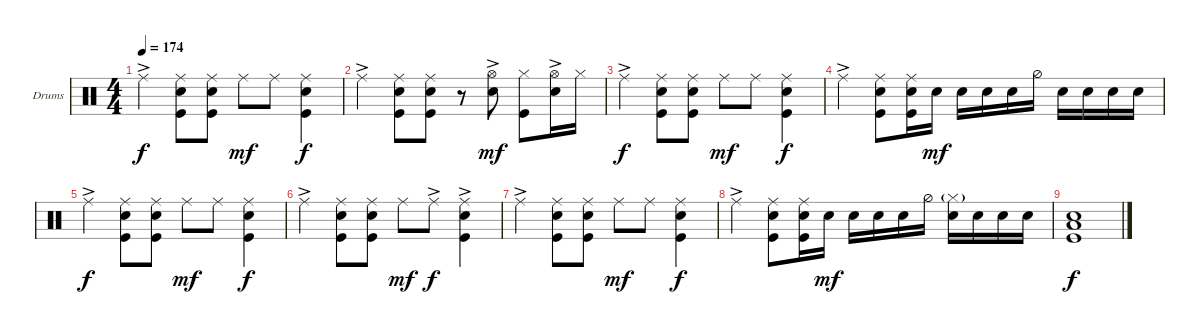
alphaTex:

\defaultSystemsLayout 4
\bracketExtendMode groupsimilarinstruments
\firstSystemTrackNameOrientation horizontal
\otherSystemsTrackNameOrientation horizontal
\track ("Drumkit (Liam Finn)" "Drums") {instrument percussion}
\staff {score}
\articulation defaults
\ts (4 4)
\tempo 174
\clef neutral
\scale
0.333333
\ks c "Ride (middle)"{ac}.4{dy f}
("Snare (hit) 2" "Kick (hit)" "Ride (middle)").8 ("Snare (hit) 2" "Kick (hit)" "Ride (middle)").8 "Ride (middle)".8{dy mf} "Ride (middle)".8 ("Snare (hit) 2" "Kick (hit)" "Ride (middle)").4{dy f} |
\scale
0.333333 "Ride (middle)"{ac}.4 ("Snare (hit) 2" "Kick (hit)" "Ride (middle)").8 ("Snare (hit) 2" "Kick (hit)" "Ride (middle)").8 r.8 ("Hi-Hat (open)" "Snare (hit) 2"{ac}).8{dy mf} ("Hi-Hat (closed)" "Kick (hit)").8 ("Hi-Hat (open)" "Snare (hit) 2"{ac}).16 "Hi-Hat (closed)".16 |
\scale
0.333333 "Ride (middle)"{ac}.4{dy f} ("Snare (hit) 2" "Kick (hit)" "Ride (middle)").8 ("Snare (hit) 2" "Kick (hit)" "Ride (middle)").8 "Ride (middle)".8{dy mf} "Ride (middle)".8 ("Snare (hit) 2" "Kick (hit)" "Ride (middle)").4{dy f} |
\scale
0.333333 "Ride (middle)"{ac}.4 ("Snare (hit) 2" "Kick (hit)" "Ride (middle)").8 ("Snare (hit) 2" "Kick (hit)" "Ride (middle)").16 "Snare (hit) 2".16{dy mf} "Snare (hit) 2".16 "Snare (hit) 2".16 "Snare (hit) 2".16 "Hi-Hat (half)".16 "Snare (hit) 2".16 "Snare (hit) 2".16 "Snare (hit) 2".16 "Snare (hit) 2".16 |
\scale
0.333333 "Ride (middle)"{ac}.4{dy f} ("Snare (hit) 2" "Kick (hit)" "Ride (middle)").8 ("Snare (hit) 2" "Kick (hit)" "Ride (middle)").8 "Ride (middle)".8{dy mf} "Ride (middle)".8 ("Snare (hit) 2" "Kick (hit)" "Ride (middle)").4{dy f} |
\scale
0.333333 "Ride (middle)"{ac}.4 ("Snare (hit) 2" "Kick (hit)" "Ride (middle)").8 ("Snare (hit) 2" "Kick (hit)" "Ride (middle)").8 "Ride (middle)".8{dy mf} "Ride (middle)"{ac}.8{dy f} ("Snare (hit) 2" "Kick (hit)" "Ride (middle)"{ac}).4 |
\scale
0.333333 "Ride (middle)"{ac}.4 ("Snare (hit) 2" "Kick (hit)" "Ride (middle)").8 ("Snare (hit) 2" "Kick (hit)" "Ride (middle)").8 "Ride (middle)".8{dy mf} "Ride (middle)".8 ("Snare (hit) 2" "Kick (hit)" "Ride (middle)").4{dy f} |
\scale
0.333333 "Ride (middle)"{ac}.4 ("Snare (hit) 2" "Kick (hit)" "Ride (middle)").8 ("Snare (hit) 2" "Kick (hit)" "Ride (middle)").16 "Snare (hit) 2".16{dy mf} "Snare (hit) 2".16 "Snare (hit) 2".16 "Snare (hit) 2".16 "Hi-Hat (half)".16 ("Snare (hit) 2" "Hi-Hat (closed)"{g}).16 "Snare (hit) 2".16 "Snare (hit) 2".16 "Snare (hit) 2".16 |
("Low Tom (hit)" "Snare (hit) 2" "Kick (hit)").1{dy f}
